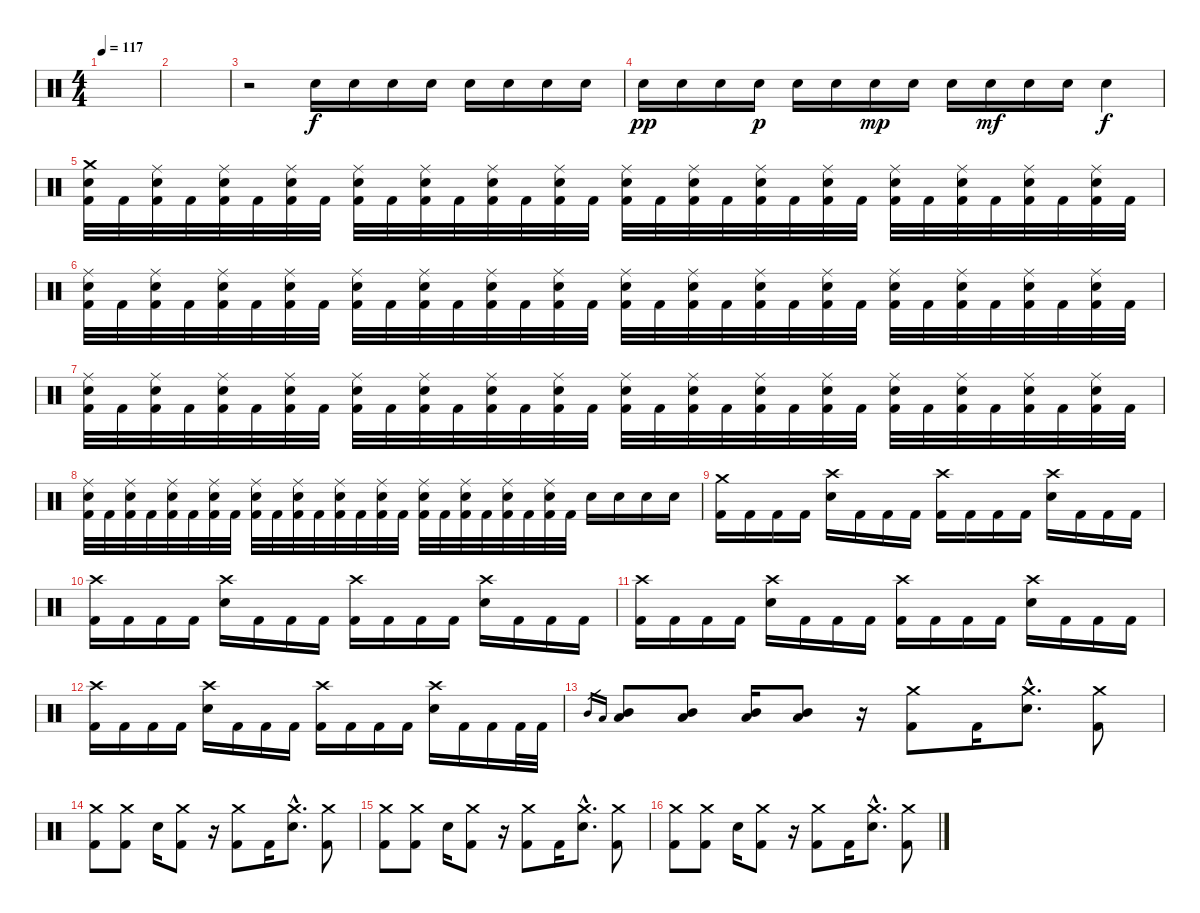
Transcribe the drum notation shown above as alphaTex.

\track "" {instrument percussion}
\staff {score}
\articulation defaults
\ts (4 4)
\tempo 117
\clef neutral
\ks c
|
|
r.2 "Electric Snare (hit)".16 "Electric Snare (hit)".16 "Electric Snare (hit)".16 "Electric Snare (hit)".16 "Electric Snare (hit)".16 "Electric Snare (hit)".16 "Electric Snare (hit)".16 "Electric Snare (hit)".16 |
"Electric Snare (hit)".16{dy pp} "Electric Snare (hit)".16 "Electric Snare (hit)".16 "Electric Snare (hit)".16{dy p} "Electric Snare (hit)".16 "Electric Snare (hit)".16 "Electric Snare (hit)".16{dy mp} "Electric Snare (hit)".16 "Electric Snare (hit)".16 "Electric Snare (hit)".16{dy mf} "Electric Snare (hit)".16 "Electric Snare (hit)".16 "Electric Snare (hit)".4{dy f} |
("Electric Snare (hit)" "Crash medium (hit)" "Kick (hit) 2").32 "Kick (hit) 2".32 ("Electric Snare (hit)" "Ride (middle)" "Kick (hit) 2").32 "Kick (hit) 2".32 ("Electric Snare (hit)" "Ride (middle)" "Kick (hit) 2").32 "Kick (hit) 2".32 ("Electric Snare (hit)" "Ride (middle)" "Kick (hit) 2").32 "Kick (hit) 2".32 ("Electric Snare (hit)" "Ride (middle)" "Kick (hit) 2").32 "Kick (hit) 2".32 ("Electric Snare (hit)" "Ride (middle)" "Kick (hit) 2").32 "Kick (hit) 2".32 ("Electric Snare (hit)" "Ride (middle)" "Kick (hit) 2").32 "Kick (hit) 2".32 ("Electric Snare (hit)" "Ride (middle)" "Kick (hit) 2").32 "Kick (hit) 2".32 ("Electric Snare (hit)" "Ride (middle)" "Kick (hit) 2").32 "Kick (hit) 2".32 ("Electric Snare (hit)" "Ride (middle)" "Kick (hit) 2").32 "Kick (hit) 2".32 ("Electric Snare (hit)" "Ride (middle)" "Kick (hit) 2").32 "Kick (hit) 2".32 ("Electric Snare (hit)" "Ride (middle)" "Kick (hit) 2").32 "Kick (hit) 2".32 ("Electric Snare (hit)" "Ride (middle)" "Kick (hit) 2").32 "Kick (hit) 2".32 ("Electric Snare (hit)" "Ride (middle)" "Kick (hit) 2").32 "Kick (hit) 2".32 ("Electric Snare (hit)" "Ride (middle)" "Kick (hit) 2").32 "Kick (hit) 2".32 ("Electric Snare (hit)" "Ride (middle)" "Kick (hit) 2").32 "Kick (hit) 2".32 |
("Electric Snare (hit)" "Ride (middle)" "Kick (hit) 2").32 "Kick (hit) 2".32 ("Electric Snare (hit)" "Ride (middle)" "Kick (hit) 2").32 "Kick (hit) 2".32 ("Electric Snare (hit)" "Ride (middle)" "Kick (hit) 2").32 "Kick (hit) 2".32 ("Electric Snare (hit)" "Ride (middle)" "Kick (hit) 2").32 "Kick (hit) 2".32 ("Electric Snare (hit)" "Ride (middle)" "Kick (hit) 2").32 "Kick (hit) 2".32 ("Electric Snare (hit)" "Ride (middle)" "Kick (hit) 2").32 "Kick (hit) 2".32 ("Electric Snare (hit)" "Ride (middle)" "Kick (hit) 2").32 "Kick (hit) 2".32 ("Electric Snare (hit)" "Ride (middle)" "Kick (hit) 2").32 "Kick (hit) 2".32 ("Electric Snare (hit)" "Ride (middle)" "Kick (hit) 2").32 "Kick (hit) 2".32 ("Electric Snare (hit)" "Ride (middle)" "Kick (hit) 2").32 "Kick (hit) 2".32 ("Electric Snare (hit)" "Ride (middle)" "Kick (hit) 2").32 "Kick (hit) 2".32 ("Electric Snare (hit)" "Ride (middle)" "Kick (hit) 2").32 "Kick (hit) 2".32 ("Electric Snare (hit)" "Ride (middle)" "Kick (hit) 2").32 "Kick (hit) 2".32 ("Electric Snare (hit)" "Ride (middle)" "Kick (hit) 2").32 "Kick (hit) 2".32 ("Electric Snare (hit)" "Ride (middle)" "Kick (hit) 2").32 "Kick (hit) 2".32 ("Electric Snare (hit)" "Ride (middle)" "Kick (hit) 2").32 "Kick (hit) 2".32 |
("Electric Snare (hit)" "Ride (middle)" "Kick (hit) 2").32 "Kick (hit) 2".32 ("Electric Snare (hit)" "Ride (middle)" "Kick (hit) 2").32 "Kick (hit) 2".32 ("Electric Snare (hit)" "Ride (middle)" "Kick (hit) 2").32 "Kick (hit) 2".32 ("Electric Snare (hit)" "Ride (middle)" "Kick (hit) 2").32 "Kick (hit) 2".32 ("Electric Snare (hit)" "Ride (middle)" "Kick (hit) 2").32 "Kick (hit) 2".32 ("Electric Snare (hit)" "Ride (middle)" "Kick (hit) 2").32 "Kick (hit) 2".32 ("Electric Snare (hit)" "Ride (middle)" "Kick (hit) 2").32 "Kick (hit) 2".32 ("Electric Snare (hit)" "Ride (middle)" "Kick (hit) 2").32 "Kick (hit) 2".32 ("Electric Snare (hit)" "Ride (middle)" "Kick (hit) 2").32 "Kick (hit) 2".32 ("Electric Snare (hit)" "Ride (middle)" "Kick (hit) 2").32 "Kick (hit) 2".32 ("Electric Snare (hit)" "Ride (middle)" "Kick (hit) 2").32 "Kick (hit) 2".32 ("Electric Snare (hit)" "Ride (middle)" "Kick (hit) 2").32 "Kick (hit) 2".32 ("Electric Snare (hit)" "Ride (middle)" "Kick (hit) 2").32 "Kick (hit) 2".32 ("Electric Snare (hit)" "Ride (middle)" "Kick (hit) 2").32 "Kick (hit) 2".32 ("Electric Snare (hit)" "Ride (middle)" "Kick (hit) 2").32 "Kick (hit) 2".32 ("Electric Snare (hit)" "Ride (middle)" "Kick (hit) 2").32 "Kick (hit) 2".32 |
("Electric Snare (hit)" "Ride (middle)" "Kick (hit) 2").32 "Kick (hit) 2".32 ("Electric Snare (hit)" "Ride (middle)" "Kick (hit) 2").32 "Kick (hit) 2".32 ("Electric Snare (hit)" "Ride (middle)" "Kick (hit) 2").32 "Kick (hit) 2".32 ("Electric Snare (hit)" "Ride (middle)" "Kick (hit) 2").32 "Kick (hit) 2".32 ("Electric Snare (hit)" "Ride (middle)" "Kick (hit) 2").32 "Kick (hit) 2".32 ("Electric Snare (hit)" "Ride (middle)" "Kick (hit) 2").32 "Kick (hit) 2".32 ("Electric Snare (hit)" "Ride (middle)" "Kick (hit) 2").32 "Kick (hit) 2".32 ("Electric Snare (hit)" "Ride (middle)" "Kick (hit) 2").32 "Kick (hit) 2".32 ("Electric Snare (hit)" "Ride (middle)" "Kick (hit) 2").32 "Kick (hit) 2".32 ("Electric Snare (hit)" "Ride (middle)" "Kick (hit) 2").32 "Kick (hit) 2".32 ("Electric Snare (hit)" "Ride (middle)" "Kick (hit) 2").32 "Kick (hit) 2".32 ("Electric Snare (hit)" "Ride (middle)" "Kick (hit) 2").32 "Kick (hit) 2".32 "Electric Snare (hit)".16 "Electric Snare (hit)".16 "Electric Snare (hit)".16 "Electric Snare (hit)".16 |
("Kick (hit) 2" "Crash medium (hit)").16 "Kick (hit) 2".16 "Kick (hit) 2".16 "Kick (hit) 2".16 ("Electric Snare (hit)" "Crash high (hit)").16 "Kick (hit) 2".16 "Kick (hit) 2".16 "Kick (hit) 2".16 ("Kick (hit) 2" "Crash high (hit)").16 "Kick (hit) 2".16 "Kick (hit) 2".16 "Kick (hit) 2".16 ("Electric Snare (hit)" "Crash high (hit)").16 "Kick (hit) 2".16 "Kick (hit) 2".16 "Kick (hit) 2".16 |
("Kick (hit) 2" "Crash high (hit)").16 "Kick (hit) 2".16 "Kick (hit) 2".16 "Kick (hit) 2".16 ("Electric Snare (hit)" "Crash high (hit)").16 "Kick (hit) 2".16 "Kick (hit) 2".16 "Kick (hit) 2".16 ("Kick (hit) 2" "Crash high (hit)").16 "Kick (hit) 2".16 "Kick (hit) 2".16 "Kick (hit) 2".16 ("Electric Snare (hit)" "Crash high (hit)").16 "Kick (hit) 2".16 "Kick (hit) 2".16 "Kick (hit) 2".16 |
("Kick (hit) 2" "Crash high (hit)").16 "Kick (hit) 2".16 "Kick (hit) 2".16 "Kick (hit) 2".16 ("Electric Snare (hit)" "Crash high (hit)").16 "Kick (hit) 2".16 "Kick (hit) 2".16 "Kick (hit) 2".16 ("Kick (hit) 2" "Crash high (hit)").16 "Kick (hit) 2".16 "Kick (hit) 2".16 "Kick (hit) 2".16 ("Electric Snare (hit)" "Crash high (hit)").16 "Kick (hit) 2".16 "Kick (hit) 2".16 "Kick (hit) 2".16 |
("Kick (hit) 2" "Crash high (hit)").16 "Kick (hit) 2".16 "Kick (hit) 2".16 "Kick (hit) 2".16 ("Electric Snare (hit)" "Crash high (hit)").16 "Kick (hit) 2".16 "Kick (hit) 2".16 "Kick (hit) 2".16 ("Kick (hit) 2" "Crash high (hit)").16 "Kick (hit) 2".16 "Kick (hit) 2".16 "Kick (hit) 2".16 ("Electric Snare (hit)" "Crash high (hit)").16 "Kick (hit) 2".16 "Kick (hit) 2".16 "Kick (hit) 2".32 "Kick (hit) 2".32 |
"Mid Tom (hit)".16{gr} "Low Tom (hit)".16{gr} ("Mid Tom (hit)" "Low Tom (hit)").8 ("Mid Tom (hit)" "Low Tom (hit)").8 ("Mid Tom (hit)" "Low Tom (hit)").16 ("Mid Tom (hit)" "Low Tom (hit)").8 r.16 ("Kick (hit) 2" "Crash medium (hit)").8 "Kick (hit) 2".16 ("Electric Snare (hit)"{hac} "Crash medium (hit)"{hac}).8{d} ("Kick (hit) 2" "Crash medium (hit)").8 |
("Kick (hit) 2" "Crash medium (hit)").8 ("Kick (hit) 2" "Crash medium (hit)").8 "Electric Snare (hit)".16 ("Kick (hit) 2" "Crash medium (hit)").8 r.16 ("Kick (hit) 2" "Crash medium (hit)").8 "Kick (hit) 2".16 ("Electric Snare (hit)"{hac} "Crash medium (hit)"{hac}).8{d} ("Kick (hit) 2" "Crash medium (hit)").8 |
("Kick (hit) 2" "Crash medium (hit)").8 ("Kick (hit) 2" "Crash medium (hit)").8 "Electric Snare (hit)".16 ("Kick (hit) 2" "Crash medium (hit)").8 r.16 ("Kick (hit) 2" "Crash medium (hit)").8 "Kick (hit) 2".16 ("Electric Snare (hit)"{hac} "Crash medium (hit)"{hac}).8{d} ("Kick (hit) 2" "Crash medium (hit)").8 |
("Kick (hit) 2" "Crash medium (hit)").8 ("Kick (hit) 2" "Crash medium (hit)").8 "Electric Snare (hit)".16 ("Kick (hit) 2" "Crash medium (hit)").8 r.16 ("Kick (hit) 2" "Crash medium (hit)").8 "Kick (hit) 2".16 ("Electric Snare (hit)"{hac} "Crash medium (hit)"{hac}).8{d} ("Kick (hit) 2" "Crash medium (hit)").8
